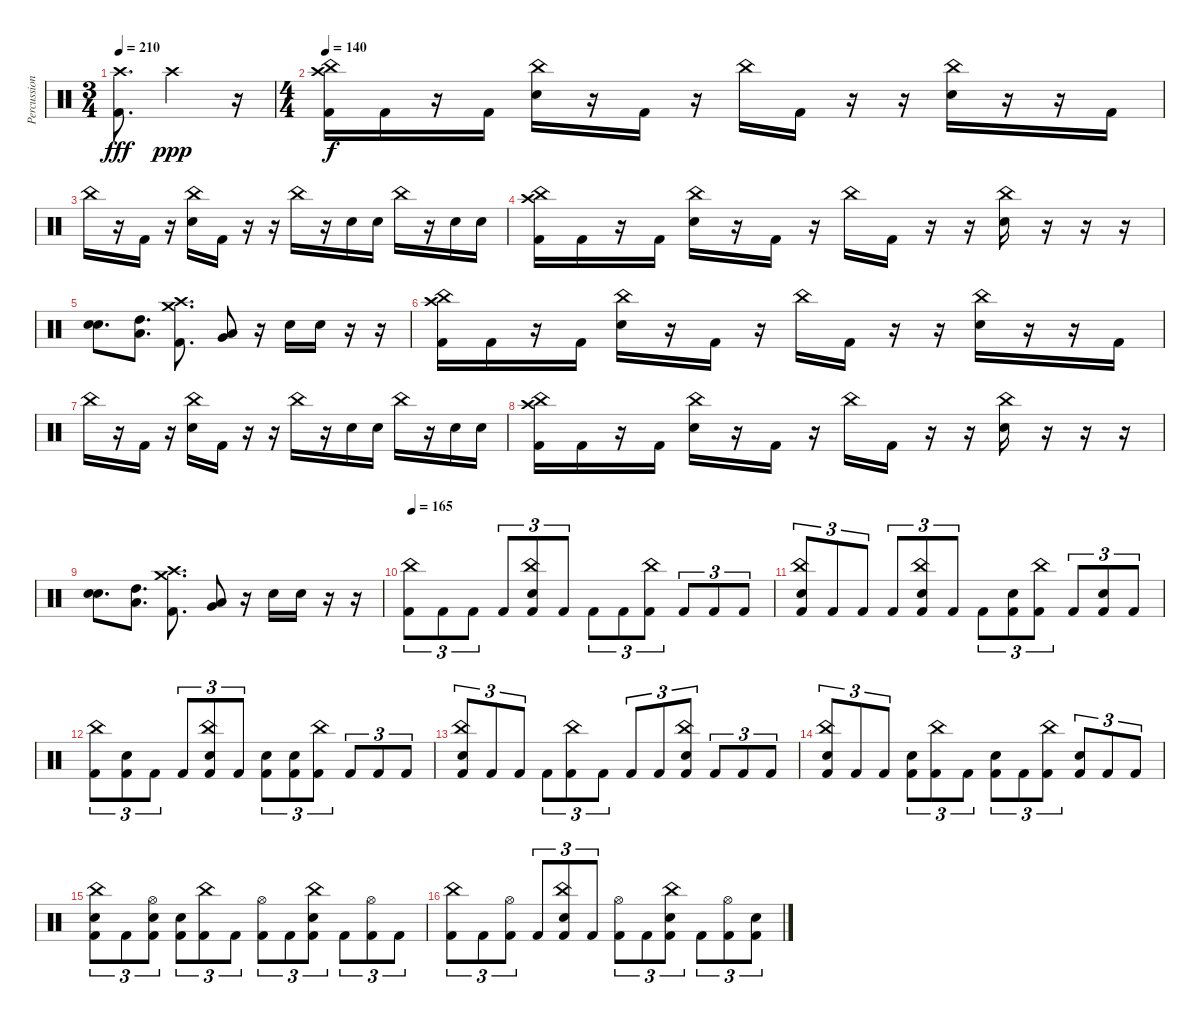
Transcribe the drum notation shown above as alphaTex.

\track ("Percussion" "Percussion") {instrument percussion}
\staff {score}
\articulation defaults
\ts (3 4)
\tempo 210
\clef neutral
\ks c
("Crash high (hit)" "Kick (hit) 2").8{d dy fff} "Crash high (hit)".2{dy ppp} r.16 |
\ts (4 4)
\tempo 140
("China (hit)" "Crash high (hit)" "Kick (hit) 2").16{dy f} "Kick (hit) 2".16 r.16 "Kick (hit) 2".16 ("China (hit)" "Electric Snare (hit)").16 r.16 "Kick (hit) 2".16 r.16 "China (hit)".16 "Kick (hit) 2".16 r.16 r.16 ("China (hit)" "Electric Snare (hit)").16 r.16 r.16 "Kick (hit) 2".16 |
"China (hit)".16 r.16 "Kick (hit) 2".16 r.16 ("China (hit)" "Electric Snare (hit)").16 "Kick (hit) 2".16 r.16 r.16 "China (hit)".16 r.16 "Electric Snare (hit)".16 "Electric Snare (hit)".16 "China (hit)".16 r.16 "Electric Snare (hit)".16 "Electric Snare (hit)".16 |
("China (hit)" "Crash high (hit)" "Kick (hit) 2").16 "Kick (hit) 2".16 r.16 "Kick (hit) 2".16 ("China (hit)" "Electric Snare (hit)").16 r.16 "Kick (hit) 2".16 r.16 "China (hit)".16 "Kick (hit) 2".16 r.16 r.16 ("China (hit)" "Electric Snare (hit)").16 r.16 r.16 r.16 |
("Electric Snare (hit)" "Electric Snare (hit)").8{d} ("High Tom (hit)" "Low Tom (hit)").8{d} ("Crash medium (hit)" "Crash high (hit)" "Kick (hit) 2").8{d} ("Very Low Tom (hit)" "Low Tom (hit)").8 r.16 "Electric Snare (hit)".16 "Electric Snare (hit)".16 r.16 r.16 |
("China (hit)" "Crash high (hit)" "Kick (hit) 2").16 "Kick (hit) 2".16 r.16 "Kick (hit) 2".16 ("China (hit)" "Electric Snare (hit)").16 r.16 "Kick (hit) 2".16 r.16 "China (hit)".16 "Kick (hit) 2".16 r.16 r.16 ("China (hit)" "Electric Snare (hit)").16 r.16 r.16 "Kick (hit) 2".16 |
"China (hit)".16 r.16 "Kick (hit) 2".16 r.16 ("China (hit)" "Electric Snare (hit)").16 "Kick (hit) 2".16 r.16 r.16 "China (hit)".16 r.16 "Electric Snare (hit)".16 "Electric Snare (hit)".16 "China (hit)".16 r.16 "Electric Snare (hit)".16 "Electric Snare (hit)".16 |
("China (hit)" "Crash high (hit)" "Kick (hit) 2").16 "Kick (hit) 2".16 r.16 "Kick (hit) 2".16 ("China (hit)" "Electric Snare (hit)").16 r.16 "Kick (hit) 2".16 r.16 "China (hit)".16 "Kick (hit) 2".16 r.16 r.16 ("China (hit)" "Electric Snare (hit)").16 r.16 r.16 r.16 |
("Electric Snare (hit)" "Electric Snare (hit)").8{d} ("High Tom (hit)" "Low Tom (hit)").8{d} ("Crash medium (hit)" "Crash high (hit)" "Kick (hit) 2").8{d} ("Very Low Tom (hit)" "Low Tom (hit)").8 r.16 "Electric Snare (hit)".16 "Electric Snare (hit)".16 r.16 r.16 |
\tempo 170
\tempo 165
("China (hit)" "Kick (hit) 2").8{tu (3 2)} "Kick (hit) 2".8{tu (3 2)} "Kick (hit) 2".8{tu (3 2)} "Kick (hit) 2".8{tu (3 2)} ("China (hit)" "Electric Snare (hit)" "Kick (hit) 2").8{tu (3 2)} "Kick (hit) 2".8{tu (3 2)} "Kick (hit) 2".8{tu (3 2)} "Kick (hit) 2".8{tu (3 2)} ("China (hit)" "Kick (hit) 2").8{tu (3 2)} "Kick (hit) 2".8{tu (3 2)} "Kick (hit) 2".8{tu (3 2)} "Kick (hit) 2".8{tu (3 2)} |
("China (hit)" "Electric Snare (hit)" "Kick (hit) 2").8{tu (3 2)} "Kick (hit) 2".8{tu (3 2)} "Kick (hit) 2".8{tu (3 2)} "Kick (hit) 2".8{tu (3 2)} ("China (hit)" "Electric Snare (hit)" "Kick (hit) 2").8{tu (3 2)} "Kick (hit) 2".8{tu (3 2)} "Kick (hit) 2".8{tu (3 2)} ("Electric Snare (hit)" "Kick (hit) 2").8{tu (3 2)} ("China (hit)" "Kick (hit) 2").8{tu (3 2)} "Kick (hit) 2".8{tu (3 2)} ("Electric Snare (hit)" "Kick (hit) 2").8{tu (3 2)} "Kick (hit) 2".8{tu (3 2)} |
("China (hit)" "Kick (hit) 2").8{tu (3 2)} ("Electric Snare (hit)" "Kick (hit) 2").8{tu (3 2)} "Kick (hit) 2".8{tu (3 2)} "Kick (hit) 2".8{tu (3 2)} ("China (hit)" "Electric Snare (hit)" "Kick (hit) 2").8{tu (3 2)} "Kick (hit) 2".8{tu (3 2)} ("Electric Snare (hit)" "Kick (hit) 2").8{tu (3 2)} ("Electric Snare (hit)" "Kick (hit) 2").8{tu (3 2)} ("China (hit)" "Kick (hit) 2").8{tu (3 2)} "Kick (hit) 2".8{tu (3 2)} "Kick (hit) 2".8{tu (3 2)} "Kick (hit) 2".8{tu (3 2)} |
("China (hit)" "Electric Snare (hit)" "Kick (hit) 2").8{tu (3 2)} "Kick (hit) 2".8{tu (3 2)} "Kick (hit) 2".8{tu (3 2)} "Kick (hit) 2".8{tu (3 2)} ("China (hit)" "Kick (hit) 2").8{tu (3 2)} "Kick (hit) 2".8{tu (3 2)} "Kick (hit) 2".8{tu (3 2)} "Kick (hit) 2".8{tu (3 2)} ("China (hit)" "Electric Snare (hit)" "Kick (hit) 2").8{tu (3 2)} "Kick (hit) 2".8{tu (3 2)} "Kick (hit) 2".8{tu (3 2)} "Kick (hit) 2".8{tu (3 2)} |
("China (hit)" "Electric Snare (hit)" "Kick (hit) 2").8{tu (3 2)} "Kick (hit) 2".8{tu (3 2)} "Kick (hit) 2".8{tu (3 2)} ("Electric Snare (hit)" "Kick (hit) 2").8{tu (3 2)} ("China (hit)" "Kick (hit) 2").8{tu (3 2)} "Kick (hit) 2".8{tu (3 2)} ("Electric Snare (hit)" "Kick (hit) 2").8{tu (3 2)} "Kick (hit) 2".8{tu (3 2)} ("China (hit)" "Kick (hit) 2").8{tu (3 2)} ("Electric Snare (hit)" "Kick (hit) 2").8{tu (3 2)} "Kick (hit) 2".8{tu (3 2)} "Kick (hit) 2".8{tu (3 2)} |
("China (hit)" "Electric Snare (hit)" "Kick (hit) 2").8{tu (3 2)} "Kick (hit) 2".8{tu (3 2)} ("Hi-Hat (open)" "Electric Snare (hit)" "Kick (hit) 2").8{tu (3 2)} ("Electric Snare (hit)" "Kick (hit) 2").8{tu (3 2)} ("China (hit)" "Kick (hit) 2").8{tu (3 2)} "Kick (hit) 2".8{tu (3 2)} ("Hi-Hat (open)" "Kick (hit) 2").8{tu (3 2)} "Kick (hit) 2".8{tu (3 2)} ("China (hit)" "Electric Snare (hit)" "Kick (hit) 2").8{tu (3 2)} "Kick (hit) 2".8{tu (3 2)} ("Hi-Hat (open)" "Kick (hit) 2").8{tu (3 2)} "Kick (hit) 2".8{tu (3 2)} |
("China (hit)" "Kick (hit) 2").8{tu (3 2)} "Kick (hit) 2".8{tu (3 2)} ("Hi-Hat (open)" "Kick (hit) 2").8{tu (3 2)} "Kick (hit) 2".8{tu (3 2)} ("China (hit)" "Electric Snare (hit)" "Kick (hit) 2").8{tu (3 2)} "Kick (hit) 2".8{tu (3 2)} ("Hi-Hat (open)" "Kick (hit) 2").8{tu (3 2)} "Kick (hit) 2".8{tu (3 2)} ("China (hit)" "Electric Snare (hit)" "Kick (hit) 2").8{tu (3 2)} "Kick (hit) 2".8{tu (3 2)} ("Hi-Hat (open)" "Kick (hit) 2").8{tu (3 2)} ("Electric Snare (hit)" "Kick (hit) 2").8{tu (3 2)}
